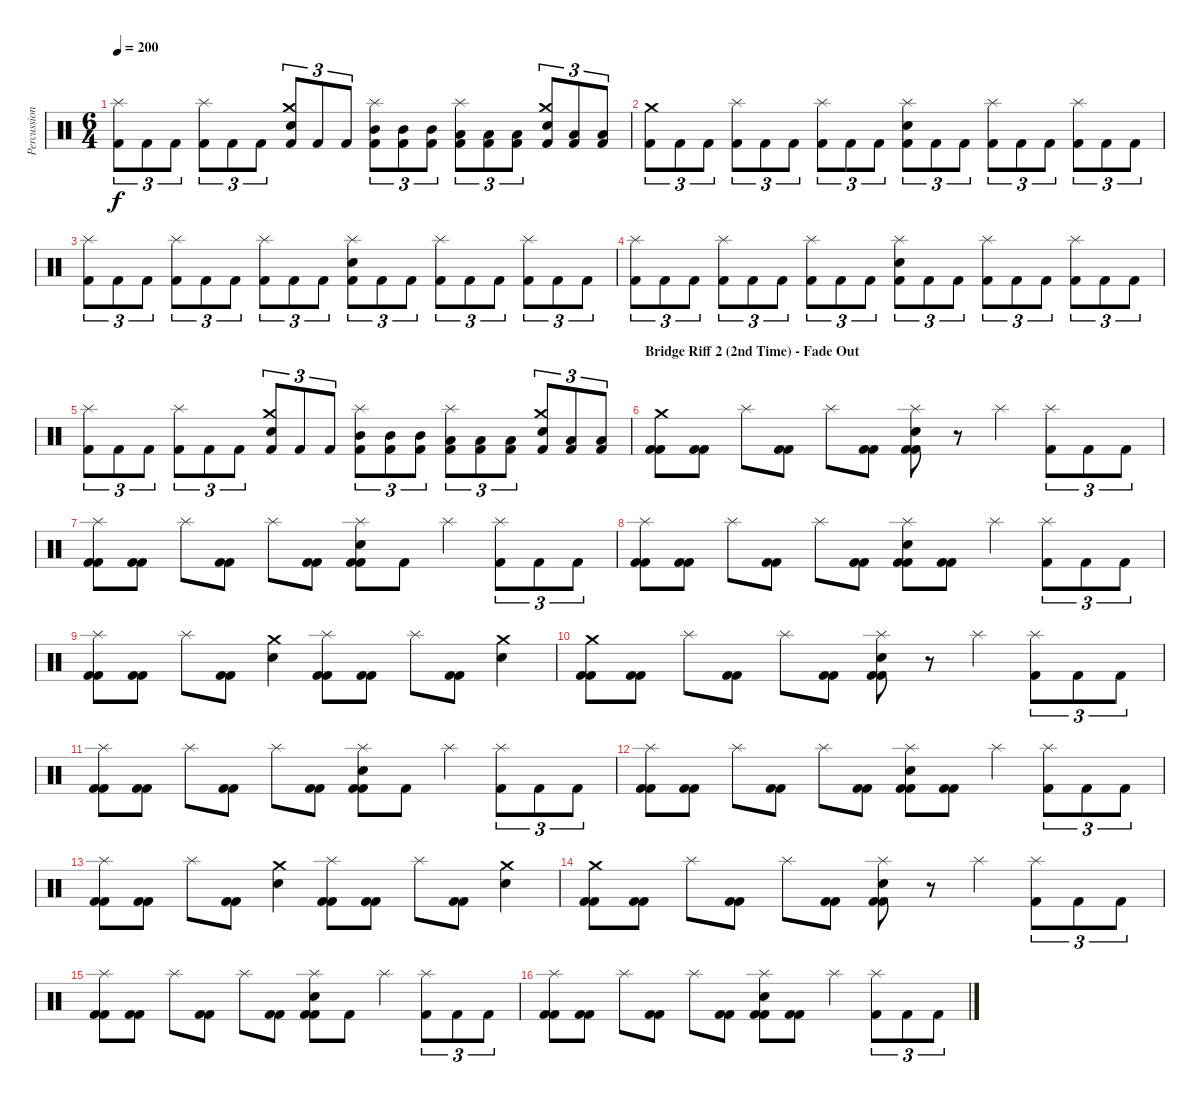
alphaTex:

\track ("Percussion" "Percussion") {instrument percussion}
\staff {score}
\articulation defaults
\ts (6 4)
\tempo 200
\clef neutral
\ks c
("Splash (hit)" "Kick (hit) 2").8{tu (3 2) dy f} "Kick (hit) 2".8{tu (3 2)} "Kick (hit) 2".8{tu (3 2)} ("Splash (hit)" "Kick (hit) 2").8{tu (3 2)} "Kick (hit) 2".8{tu (3 2)} "Kick (hit) 2".8{tu (3 2)} ("Crash medium (hit)" "Electric Snare (hit)" "Kick (hit) 2").8{tu (3 2)} "Kick (hit) 2".8{tu (3 2)} "Kick (hit) 2".8{tu (3 2)} ("Splash (hit)" "Mid Tom (hit)" "Kick (hit) 2").8{tu (3 2)} ("Mid Tom (hit)" "Kick (hit) 2").8{tu (3 2)} ("Mid Tom (hit)" "Kick (hit) 2").8{tu (3 2)} ("Splash (hit)" "Low Tom (hit)" "Kick (hit) 2").8{tu (3 2)} ("Low Tom (hit)" "Kick (hit) 2").8{tu (3 2)} ("Low Tom (hit)" "Kick (hit) 2").8{tu (3 2)} ("Crash medium (hit)" "Electric Snare (hit)" "Kick (hit) 2").8{tu (3 2)} ("Low Floor Tom (hit)" "Kick (hit) 2").8{tu (3 2)} ("Low Floor Tom (hit)" "Kick (hit) 2").8{tu (3 2)} |
("Crash medium (hit)" "Kick (hit) 2").8{tu (3 2)} "Kick (hit) 2".8{tu (3 2)} "Kick (hit) 2".8{tu (3 2)} ("Splash (hit)" "Kick (hit) 2").8{tu (3 2)} "Kick (hit) 2".8{tu (3 2)} "Kick (hit) 2".8{tu (3 2)} ("Splash (hit)" "Kick (hit) 2").8{tu (3 2)} "Kick (hit) 2".8{tu (3 2)} "Kick (hit) 2".8{tu (3 2)} ("Splash (hit)" "Electric Snare (hit)" "Kick (hit) 2").8{tu (3 2)} "Kick (hit) 2".8{tu (3 2)} "Kick (hit) 2".8{tu (3 2)} ("Splash (hit)" "Kick (hit) 2").8{tu (3 2)} "Kick (hit) 2".8{tu (3 2)} "Kick (hit) 2".8{tu (3 2)} ("Splash (hit)" "Kick (hit) 2").8{tu (3 2)} "Kick (hit) 2".8{tu (3 2)} "Kick (hit) 2".8{tu (3 2)} |
("Splash (hit)" "Kick (hit) 2").8{tu (3 2)} "Kick (hit) 2".8{tu (3 2)} "Kick (hit) 2".8{tu (3 2)} ("Splash (hit)" "Kick (hit) 2").8{tu (3 2)} "Kick (hit) 2".8{tu (3 2)} "Kick (hit) 2".8{tu (3 2)} ("Splash (hit)" "Kick (hit) 2").8{tu (3 2)} "Kick (hit) 2".8{tu (3 2)} "Kick (hit) 2".8{tu (3 2)} ("Splash (hit)" "Electric Snare (hit)" "Kick (hit) 2").8{tu (3 2)} "Kick (hit) 2".8{tu (3 2)} "Kick (hit) 2".8{tu (3 2)} ("Splash (hit)" "Kick (hit) 2").8{tu (3 2)} "Kick (hit) 2".8{tu (3 2)} "Kick (hit) 2".8{tu (3 2)} ("Splash (hit)" "Kick (hit) 2").8{tu (3 2)} "Kick (hit) 2".8{tu (3 2)} "Kick (hit) 2".8{tu (3 2)} |
("Splash (hit)" "Kick (hit) 2").8{tu (3 2)} "Kick (hit) 2".8{tu (3 2)} "Kick (hit) 2".8{tu (3 2)} ("Splash (hit)" "Kick (hit) 2").8{tu (3 2)} "Kick (hit) 2".8{tu (3 2)} "Kick (hit) 2".8{tu (3 2)} ("Splash (hit)" "Kick (hit) 2").8{tu (3 2)} "Kick (hit) 2".8{tu (3 2)} "Kick (hit) 2".8{tu (3 2)} ("Splash (hit)" "Electric Snare (hit)" "Kick (hit) 2").8{tu (3 2)} "Kick (hit) 2".8{tu (3 2)} "Kick (hit) 2".8{tu (3 2)} ("Splash (hit)" "Kick (hit) 2").8{tu (3 2)} "Kick (hit) 2".8{tu (3 2)} "Kick (hit) 2".8{tu (3 2)} ("Splash (hit)" "Kick (hit) 2").8{tu (3 2)} "Kick (hit) 2".8{tu (3 2)} "Kick (hit) 2".8{tu (3 2)} |
("Splash (hit)" "Kick (hit) 2").8{tu (3 2)} "Kick (hit) 2".8{tu (3 2)} "Kick (hit) 2".8{tu (3 2)} ("Splash (hit)" "Kick (hit) 2").8{tu (3 2)} "Kick (hit) 2".8{tu (3 2)} "Kick (hit) 2".8{tu (3 2)} ("Crash medium (hit)" "Electric Snare (hit)" "Kick (hit) 2").8{tu (3 2)} "Kick (hit) 2".8{tu (3 2)} "Kick (hit) 2".8{tu (3 2)} ("Splash (hit)" "Mid Tom (hit)" "Kick (hit) 2").8{tu (3 2)} ("Mid Tom (hit)" "Kick (hit) 2").8{tu (3 2)} ("Mid Tom (hit)" "Kick (hit) 2").8{tu (3 2)} ("Splash (hit)" "Low Tom (hit)" "Kick (hit) 2").8{tu (3 2)} ("Low Tom (hit)" "Kick (hit) 2").8{tu (3 2)} ("Low Tom (hit)" "Kick (hit) 2").8{tu (3 2)} ("Crash medium (hit)" "Electric Snare (hit)" "Kick (hit) 2").8{tu (3 2)} ("Low Floor Tom (hit)" "Kick (hit) 2").8{tu (3 2)} ("Low Floor Tom (hit)" "Kick (hit) 2").8{tu (3 2)} |
\section ("" "Bridge Riff 2 (2nd Time) - Fade Out")
("Crash medium (hit)" "Kick (hit) 2" "Kick (hit) 2").8 ("Kick (hit) 2" "Kick (hit) 2").8 "Splash (hit)".8 ("Kick (hit) 2" "Kick (hit) 2").8 "Splash (hit)".8 ("Kick (hit) 2" "Kick (hit) 2").8 ("Splash (hit)" "Electric Snare (hit)" "Kick (hit) 2" "Kick (hit) 2").8 r.8 "Splash (hit)".4 ("Splash (hit)" "Kick (hit) 2").8{tu (3 2)} "Kick (hit) 2".8{tu (3 2)} "Kick (hit) 2".8{tu (3 2)} |
("Splash (hit)" "Kick (hit) 2" "Kick (hit) 2").8 ("Kick (hit) 2" "Kick (hit) 2").8 "Splash (hit)".8 ("Kick (hit) 2" "Kick (hit) 2").8 "Splash (hit)".8 ("Kick (hit) 2" "Kick (hit) 2").8 ("Splash (hit)" "Electric Snare (hit)" "Kick (hit) 2" "Kick (hit) 2").8 "Kick (hit) 2".8 "Splash (hit)".4 ("Splash (hit)" "Kick (hit) 2").8{tu (3 2)} "Kick (hit) 2".8{tu (3 2)} "Kick (hit) 2".8{tu (3 2)} |
("Splash (hit)" "Kick (hit) 2" "Kick (hit) 2").8 ("Kick (hit) 2" "Kick (hit) 2").8 "Splash (hit)".8 ("Kick (hit) 2" "Kick (hit) 2").8 "Splash (hit)".8 ("Kick (hit) 2" "Kick (hit) 2").8 ("Splash (hit)" "Electric Snare (hit)" "Kick (hit) 2" "Kick (hit) 2").8 ("Kick (hit) 2" "Kick (hit) 2").8 "Splash (hit)".4 ("Splash (hit)" "Kick (hit) 2").8{tu (3 2)} "Kick (hit) 2".8{tu (3 2)} "Kick (hit) 2".8{tu (3 2)} |
("Splash (hit)" "Kick (hit) 2" "Kick (hit) 2").8 ("Kick (hit) 2" "Kick (hit) 2").8 "Splash (hit)".8 ("Kick (hit) 2" "Kick (hit) 2").8 ("Crash medium (hit)" "Electric Snare (hit)").4 ("Splash (hit)" "Kick (hit) 2" "Kick (hit) 2").8 ("Kick (hit) 2" "Kick (hit) 2").8 "Splash (hit)".8 ("Kick (hit) 2" "Kick (hit) 2").8 ("Crash medium (hit)" "Electric Snare (hit)").4 |
("Crash medium (hit)" "Kick (hit) 2" "Kick (hit) 2").8 ("Kick (hit) 2" "Kick (hit) 2").8 "Splash (hit)".8 ("Kick (hit) 2" "Kick (hit) 2").8 "Splash (hit)".8 ("Kick (hit) 2" "Kick (hit) 2").8 ("Splash (hit)" "Electric Snare (hit)" "Kick (hit) 2" "Kick (hit) 2").8 r.8 "Splash (hit)".4 ("Splash (hit)" "Kick (hit) 2").8{tu (3 2)} "Kick (hit) 2".8{tu (3 2)} "Kick (hit) 2".8{tu (3 2)} |
("Splash (hit)" "Kick (hit) 2" "Kick (hit) 2").8 ("Kick (hit) 2" "Kick (hit) 2").8 "Splash (hit)".8 ("Kick (hit) 2" "Kick (hit) 2").8 "Splash (hit)".8 ("Kick (hit) 2" "Kick (hit) 2").8 ("Splash (hit)" "Electric Snare (hit)" "Kick (hit) 2" "Kick (hit) 2").8 "Kick (hit) 2".8 "Splash (hit)".4 ("Splash (hit)" "Kick (hit) 2").8{tu (3 2)} "Kick (hit) 2".8{tu (3 2)} "Kick (hit) 2".8{tu (3 2)} |
("Splash (hit)" "Kick (hit) 2" "Kick (hit) 2").8 ("Kick (hit) 2" "Kick (hit) 2").8 "Splash (hit)".8 ("Kick (hit) 2" "Kick (hit) 2").8 "Splash (hit)".8 ("Kick (hit) 2" "Kick (hit) 2").8 ("Splash (hit)" "Electric Snare (hit)" "Kick (hit) 2" "Kick (hit) 2").8 ("Kick (hit) 2" "Kick (hit) 2").8 "Splash (hit)".4 ("Splash (hit)" "Kick (hit) 2").8{tu (3 2)} "Kick (hit) 2".8{tu (3 2)} "Kick (hit) 2".8{tu (3 2)} |
("Splash (hit)" "Kick (hit) 2" "Kick (hit) 2").8 ("Kick (hit) 2" "Kick (hit) 2").8 "Splash (hit)".8 ("Kick (hit) 2" "Kick (hit) 2").8 ("Crash medium (hit)" "Electric Snare (hit)").4 ("Splash (hit)" "Kick (hit) 2" "Kick (hit) 2").8 ("Kick (hit) 2" "Kick (hit) 2").8 "Splash (hit)".8 ("Kick (hit) 2" "Kick (hit) 2").8 ("Crash medium (hit)" "Electric Snare (hit)").4 |
("Crash medium (hit)" "Kick (hit) 2" "Kick (hit) 2").8 ("Kick (hit) 2" "Kick (hit) 2").8 "Splash (hit)".8 ("Kick (hit) 2" "Kick (hit) 2").8 "Splash (hit)".8 ("Kick (hit) 2" "Kick (hit) 2").8 ("Splash (hit)" "Electric Snare (hit)" "Kick (hit) 2" "Kick (hit) 2").8 r.8 "Splash (hit)".4 ("Splash (hit)" "Kick (hit) 2").8{tu (3 2)} "Kick (hit) 2".8{tu (3 2)} "Kick (hit) 2".8{tu (3 2)} |
("Splash (hit)" "Kick (hit) 2" "Kick (hit) 2").8 ("Kick (hit) 2" "Kick (hit) 2").8 "Splash (hit)".8 ("Kick (hit) 2" "Kick (hit) 2").8 "Splash (hit)".8 ("Kick (hit) 2" "Kick (hit) 2").8 ("Splash (hit)" "Electric Snare (hit)" "Kick (hit) 2" "Kick (hit) 2").8 "Kick (hit) 2".8 "Splash (hit)".4 ("Splash (hit)" "Kick (hit) 2").8{tu (3 2)} "Kick (hit) 2".8{tu (3 2)} "Kick (hit) 2".8{tu (3 2)} |
("Splash (hit)" "Kick (hit) 2" "Kick (hit) 2").8 ("Kick (hit) 2" "Kick (hit) 2").8 "Splash (hit)".8 ("Kick (hit) 2" "Kick (hit) 2").8 "Splash (hit)".8 ("Kick (hit) 2" "Kick (hit) 2").8 ("Splash (hit)" "Electric Snare (hit)" "Kick (hit) 2" "Kick (hit) 2").8 ("Kick (hit) 2" "Kick (hit) 2").8 "Splash (hit)".4 ("Splash (hit)" "Kick (hit) 2").8{tu (3 2)} "Kick (hit) 2".8{tu (3 2)} "Kick (hit) 2".8{tu (3 2)}
